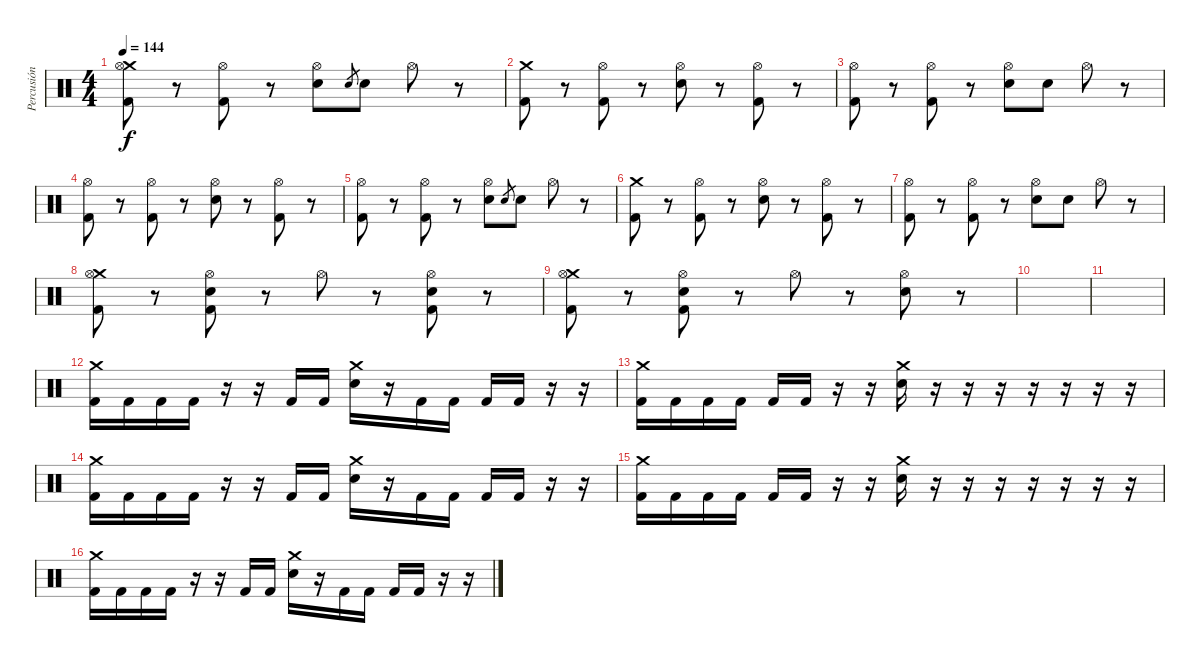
\track ("Percusión" "Percusión") {instrument percussion}
\staff {score}
\articulation defaults
\ts (4 4)
\tempo 144
\clef neutral
\ks c
("Crash medium (hit)" "Hi-Hat (open)" "Kick (hit) 2").8{dy f} r.8 ("Hi-Hat (open)" "Kick (hit) 2").8 r.8 ("Hi-Hat (open)" "Electric Snare (hit)").8 "Electric Snare (hit)".8{gr} "Electric Snare (hit)".8 "Hi-Hat (open)".8 r.8 |
("Crash medium (hit)" "Kick (hit) 2").8 r.8 ("Hi-Hat (open)" "Kick (hit) 2").8 r.8 ("Hi-Hat (open)" "Electric Snare (hit)").8 r.8 ("Hi-Hat (open)" "Kick (hit) 2").8 r.8 |
("Hi-Hat (open)" "Kick (hit) 2").8 r.8 ("Hi-Hat (open)" "Kick (hit) 2").8 r.8 ("Hi-Hat (open)" "Electric Snare (hit)").8 "Electric Snare (hit)".8 "Hi-Hat (open)".8 r.8 |
("Hi-Hat (open)" "Kick (hit) 2").8 r.8 ("Hi-Hat (open)" "Kick (hit) 2").8 r.8 ("Hi-Hat (open)" "Electric Snare (hit)").8 r.8 ("Hi-Hat (open)" "Kick (hit) 2").8 r.8 |
("Hi-Hat (open)" "Kick (hit) 2").8 r.8 ("Hi-Hat (open)" "Kick (hit) 2").8 r.8 ("Hi-Hat (open)" "Electric Snare (hit)").8 "Electric Snare (hit)".8{gr} "Electric Snare (hit)".8 "Hi-Hat (open)".8 r.8 |
("Crash medium (hit)" "Kick (hit) 2").8 r.8 ("Hi-Hat (open)" "Kick (hit) 2").8 r.8 ("Hi-Hat (open)" "Electric Snare (hit)").8 r.8 ("Hi-Hat (open)" "Kick (hit) 2").8 r.8 |
("Hi-Hat (open)" "Kick (hit) 2").8 r.8 ("Hi-Hat (open)" "Kick (hit) 2").8 r.8 ("Hi-Hat (open)" "Electric Snare (hit)").8 "Electric Snare (hit)".8 "Hi-Hat (open)".8 r.8 |
("Crash medium (hit)" "Hi-Hat (open)" "Kick (hit) 2").8 r.8 ("Hi-Hat (open)" "Electric Snare (hit)" "Kick (hit) 2").8 r.8 "Hi-Hat (open)".8 r.8 ("Hi-Hat (open)" "Electric Snare (hit)" "Kick (hit) 2").8 r.8 |
("Crash medium (hit)" "Hi-Hat (open)" "Kick (hit) 2").8 r.8 ("Hi-Hat (open)" "Electric Snare (hit)" "Kick (hit) 2").8 r.8 "Hi-Hat (open)".8 r.8 ("Hi-Hat (open)" "Electric Snare (hit)").8 r.8 |
|
|
("Crash medium (hit)" "Kick (hit) 2").16 "Kick (hit) 2".16 "Kick (hit) 2".16 "Kick (hit) 2".16 r.16 r.16 "Kick (hit) 2".16 "Kick (hit) 2".16 ("Crash medium (hit)" "Electric Snare (hit)").16 r.16 "Kick (hit) 2".16 "Kick (hit) 2".16 "Kick (hit) 2".16 "Kick (hit) 2".16 r.16 r.16 |
("Crash medium (hit)" "Kick (hit) 2").16 "Kick (hit) 2".16 "Kick (hit) 2".16 "Kick (hit) 2".16 "Kick (hit) 2".16 "Kick (hit) 2".16 r.16 r.16 ("Crash medium (hit)" "Electric Snare (hit)").16 r.16 r.16 r.16 r.16 r.16 r.16 r.16 |
("Crash medium (hit)" "Kick (hit) 2").16 "Kick (hit) 2".16 "Kick (hit) 2".16 "Kick (hit) 2".16 r.16 r.16 "Kick (hit) 2".16 "Kick (hit) 2".16 ("Crash medium (hit)" "Electric Snare (hit)").16 r.16 "Kick (hit) 2".16 "Kick (hit) 2".16 "Kick (hit) 2".16 "Kick (hit) 2".16 r.16 r.16 |
("Crash medium (hit)" "Kick (hit) 2").16 "Kick (hit) 2".16 "Kick (hit) 2".16 "Kick (hit) 2".16 "Kick (hit) 2".16 "Kick (hit) 2".16 r.16 r.16 ("Crash medium (hit)" "Electric Snare (hit)").16 r.16 r.16 r.16 r.16 r.16 r.16 r.16 |
("Crash medium (hit)" "Kick (hit) 2").16 "Kick (hit) 2".16 "Kick (hit) 2".16 "Kick (hit) 2".16 r.16 r.16 "Kick (hit) 2".16 "Kick (hit) 2".16 ("Crash medium (hit)" "Electric Snare (hit)").16 r.16 "Kick (hit) 2".16 "Kick (hit) 2".16 "Kick (hit) 2".16 "Kick (hit) 2".16 r.16 r.16
